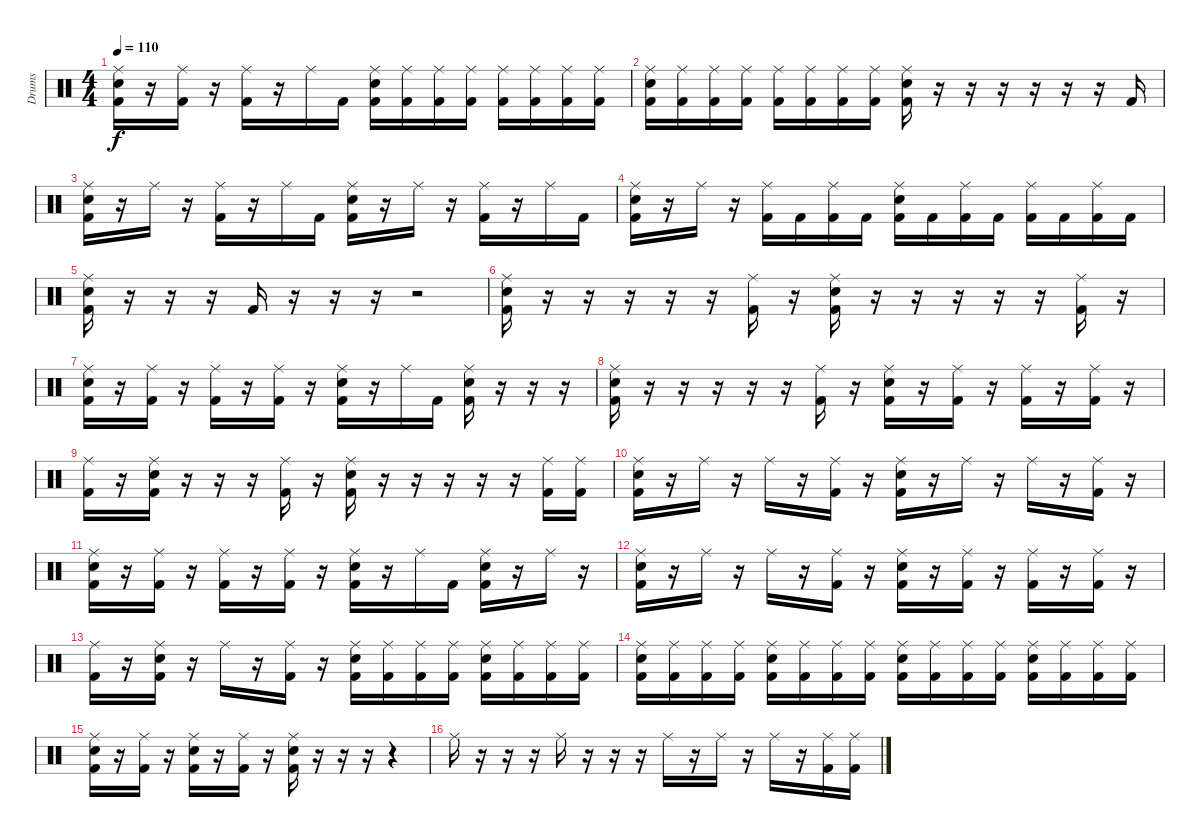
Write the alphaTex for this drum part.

\track ("Drums" "Drums") {instrument percussion}
\staff {score}
\articulation defaults
\ts (4 4)
\tempo 110
\clef neutral
\ks c
("Ride (middle)" "Electric Snare (hit)" "Kick (hit) 2").16{dy f} r.16 ("Ride (middle)" "Kick (hit) 2").16 r.16 ("Ride (middle)" "Kick (hit) 2").16 r.16 "Ride (middle)".16 "Kick (hit) 2".16 ("Ride (middle)" "Electric Snare (hit)" "Kick (hit) 2").16 ("Ride (middle)" "Kick (hit) 2").16 ("Ride (middle)" "Kick (hit) 2").16 ("Ride (middle)" "Kick (hit) 2").16 ("Ride (middle)" "Kick (hit) 2").16 ("Ride (middle)" "Kick (hit) 2").16 ("Ride (middle)" "Kick (hit) 2").16 ("Ride (middle)" "Kick (hit) 2").16 |
("Ride (middle)" "Electric Snare (hit)" "Kick (hit) 2").16 ("Ride (middle)" "Kick (hit) 2").16 ("Ride (middle)" "Kick (hit) 2").16 ("Ride (middle)" "Kick (hit) 2").16 ("Ride (middle)" "Kick (hit) 2").16 ("Ride (middle)" "Kick (hit) 2").16 ("Ride (middle)" "Kick (hit) 2").16 ("Ride (middle)" "Kick (hit) 2").16 ("Ride (middle)" "Electric Snare (hit)" "Kick (hit) 2").16 r.16 r.16 r.16 r.16 r.16 r.16 "Kick (hit) 2".16 |
("Ride (middle)" "Electric Snare (hit)" "Kick (hit) 2").16 r.16 "Ride (middle)".16 r.16 ("Ride (middle)" "Kick (hit) 2").16 r.16 "Ride (middle)".16 "Kick (hit) 2".16 ("Ride (middle)" "Electric Snare (hit)" "Kick (hit) 2").16 r.16 "Ride (middle)".16 r.16 ("Ride (middle)" "Kick (hit) 2").16 r.16 "Ride (middle)".16 "Kick (hit) 2".16 |
("Ride (middle)" "Electric Snare (hit)" "Kick (hit) 2").16 r.16 "Ride (middle)".16 r.16 ("Ride (middle)" "Kick (hit) 2").16 "Kick (hit) 2".16 ("Ride (middle)" "Kick (hit) 2").16 "Kick (hit) 2".16 ("Ride (middle)" "Electric Snare (hit)" "Kick (hit) 2").16 "Kick (hit) 2".16 ("Ride (middle)" "Kick (hit) 2").16 "Kick (hit) 2".16 ("Ride (middle)" "Kick (hit) 2").16 "Kick (hit) 2".16 ("Ride (middle)" "Kick (hit) 2").16 "Kick (hit) 2".16 |
("Ride (middle)" "Electric Snare (hit)" "Kick (hit) 2").16 r.16 r.16 r.16 "Kick (hit) 2".16 r.16 r.16 r.16 r.2 |
("Ride (middle)" "Electric Snare (hit)" "Kick (hit) 2").16 r.16 r.16 r.16 r.16 r.16 ("Ride (middle)" "Kick (hit) 2").16 r.16 ("Ride (middle)" "Electric Snare (hit)" "Kick (hit) 2").16 r.16 r.16 r.16 r.16 r.16 ("Ride (middle)" "Kick (hit) 2").16 r.16 |
("Ride (middle)" "Electric Snare (hit)" "Kick (hit) 2").16 r.16 ("Ride (middle)" "Kick (hit) 2").16 r.16 ("Ride (middle)" "Kick (hit) 2").16 r.16 ("Ride (middle)" "Kick (hit) 2").16 r.16 ("Ride (middle)" "Electric Snare (hit)" "Kick (hit) 2").16 r.16 "Ride (middle)".16 "Kick (hit) 2".16 ("Ride (middle)" "Electric Snare (hit)" "Kick (hit) 2").16 r.16 r.16 r.16 |
("Ride (middle)" "Electric Snare (hit)" "Kick (hit) 2").16 r.16 r.16 r.16 r.16 r.16 ("Ride (middle)" "Kick (hit) 2").16 r.16 ("Ride (middle)" "Electric Snare (hit)" "Kick (hit) 2").16 r.16 ("Ride (middle)" "Kick (hit) 2").16 r.16 ("Ride (middle)" "Kick (hit) 2").16 r.16 ("Ride (middle)" "Kick (hit) 2").16 r.16 |
("Ride (middle)" "Kick (hit) 2").16 r.16 ("Ride (middle)" "Electric Snare (hit)" "Kick (hit) 2").16 r.16 r.16 r.16 ("Ride (middle)" "Kick (hit) 2").16 r.16 ("Ride (middle)" "Electric Snare (hit)" "Kick (hit) 2").16 r.16 r.16 r.16 r.16 r.16 ("Ride (middle)" "Kick (hit) 2").16 ("Ride (middle)" "Kick (hit) 2").16 |
("Ride (middle)" "Electric Snare (hit)" "Kick (hit) 2").16 r.16 "Ride (middle)".16 r.16 "Ride (middle)".16 r.16 ("Ride (middle)" "Kick (hit) 2").16 r.16 ("Ride (middle)" "Electric Snare (hit)" "Kick (hit) 2").16 r.16 "Ride (middle)".16 r.16 "Ride (middle)".16 r.16 ("Ride (middle)" "Kick (hit) 2").16 r.16 |
("Ride (middle)" "Electric Snare (hit)" "Kick (hit) 2").16 r.16 ("Ride (middle)" "Kick (hit) 2").16 r.16 ("Ride (middle)" "Kick (hit) 2").16 r.16 ("Ride (middle)" "Kick (hit) 2").16 r.16 ("Ride (middle)" "Electric Snare (hit)" "Kick (hit) 2").16 r.16 "Ride (middle)".16 "Kick (hit) 2".16 ("Ride (middle)" "Electric Snare (hit)" "Kick (hit) 2").16 r.16 "Ride (middle)".16 r.16 |
("Ride (middle)" "Electric Snare (hit)" "Kick (hit) 2").16 r.16 "Ride (middle)".16 r.16 "Ride (middle)".16 r.16 ("Ride (middle)" "Kick (hit) 2").16 r.16 ("Ride (middle)" "Electric Snare (hit)" "Kick (hit) 2").16 r.16 ("Ride (middle)" "Kick (hit) 2").16 r.16 ("Ride (middle)" "Kick (hit) 2").16 r.16 ("Ride (middle)" "Kick (hit) 2").16 r.16 |
("Ride (middle)" "Kick (hit) 2").16 r.16 ("Ride (middle)" "Electric Snare (hit)" "Kick (hit) 2").16 r.16 "Ride (middle)".16 r.16 ("Ride (middle)" "Kick (hit) 2").16 r.16 ("Ride (middle)" "Electric Snare (hit)" "Kick (hit) 2").16 ("Ride (middle)" "Kick (hit) 2").16 ("Ride (middle)" "Kick (hit) 2").16 ("Ride (middle)" "Kick (hit) 2").16 ("Ride (middle)" "Electric Snare (hit)" "Kick (hit) 2").16 ("Ride (middle)" "Kick (hit) 2").16 ("Ride (middle)" "Kick (hit) 2").16 ("Ride (middle)" "Kick (hit) 2").16 |
("Ride (middle)" "Electric Snare (hit)" "Kick (hit) 2").16 ("Ride (middle)" "Kick (hit) 2").16 ("Ride (middle)" "Kick (hit) 2").16 ("Ride (middle)" "Kick (hit) 2").16 ("Ride (middle)" "Electric Snare (hit)" "Kick (hit) 2").16 ("Ride (middle)" "Kick (hit) 2").16 ("Ride (middle)" "Kick (hit) 2").16 ("Ride (middle)" "Kick (hit) 2").16 ("Ride (middle)" "Electric Snare (hit)" "Kick (hit) 2").16 ("Ride (middle)" "Kick (hit) 2").16 ("Ride (middle)" "Kick (hit) 2").16 ("Ride (middle)" "Kick (hit) 2").16 ("Ride (middle)" "Electric Snare (hit)" "Kick (hit) 2").16 ("Ride (middle)" "Kick (hit) 2").16 ("Ride (middle)" "Kick (hit) 2").16 ("Ride (middle)" "Kick (hit) 2").16 |
("Ride (middle)" "Electric Snare (hit)" "Kick (hit) 2").16 r.16 ("Ride (middle)" "Kick (hit) 2").16 r.16 ("Ride (middle)" "Electric Snare (hit)" "Kick (hit) 2").16 r.16 ("Ride (middle)" "Kick (hit) 2").16 r.16 ("Ride (middle)" "Electric Snare (hit)" "Kick (hit) 2").16 r.16 r.16 r.16 r.4 |
"Ride (middle)".16 r.16 r.16 r.16 "Ride (middle)".16 r.16 r.16 r.16 "Ride (middle)".16 r.16 "Ride (middle)".16 r.16 "Ride (middle)".16 r.16 ("Ride (middle)" "Kick (hit) 2").16 ("Ride (middle)" "Kick (hit) 2").16
